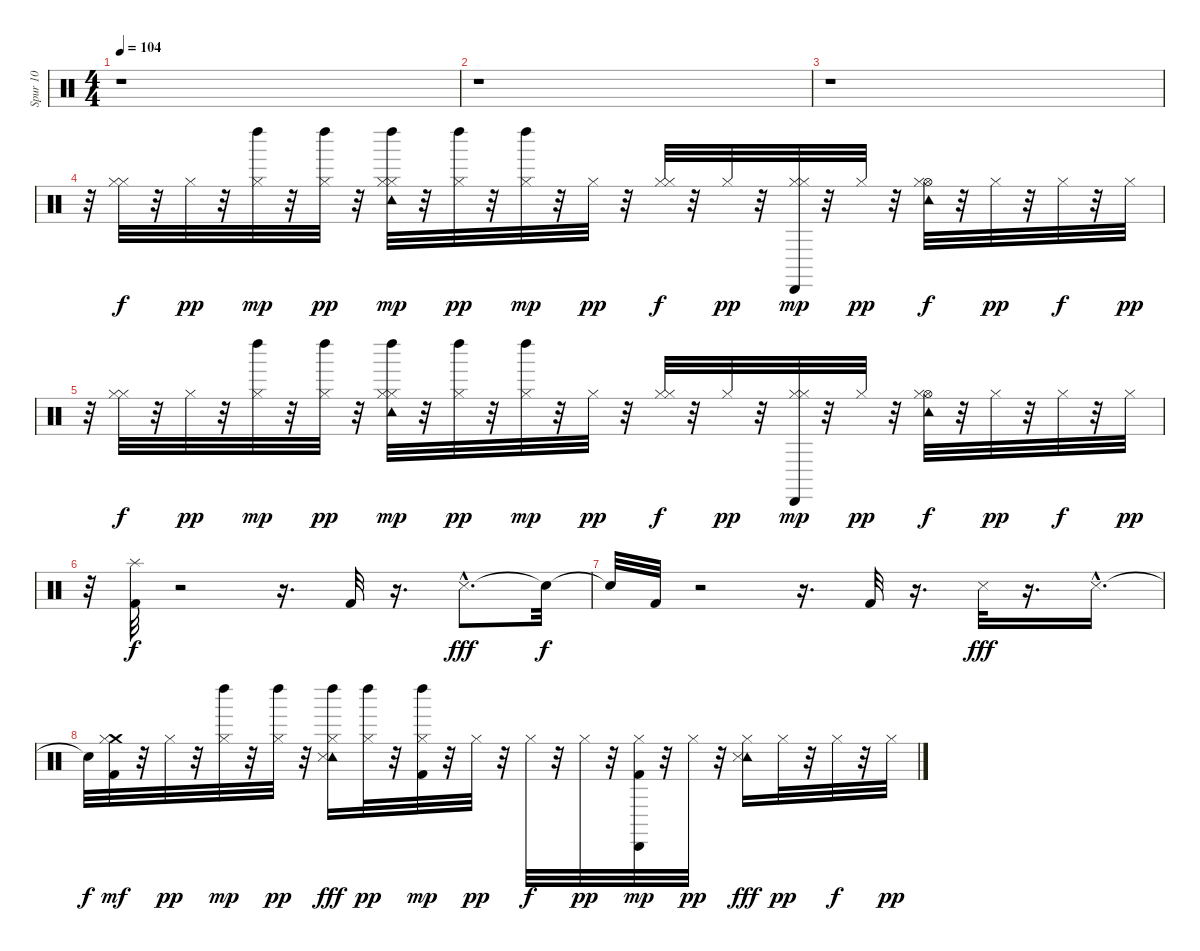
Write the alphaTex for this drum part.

\track ("Spur 10" "Spur 10") {instrument percussion}
\staff {score}
\articulation defaults
\ts (4 4)
\tempo 104
\clef neutral
\ks c
r.1{dy f} |
r.1 |
r.1 |
r.32 ("Hi-Hat (closed)" "Hi-Hat (closed)").32 r.32 "Hi-Hat (closed)".32{dy pp} r.32 ("Hi-Hat (closed)" "Left Maraca (hit)").32{dy mp} r.32 ("Hi-Hat (closed)" "Left Maraca (hit)").32{dy pp} r.32 ("Hi-Hat (closed)" "Hi-Hat (closed)" "Tambourine (hit)" "Left Maraca (hit)").32{dy mp} r.32 ("Hi-Hat (closed)" "Left Maraca (hit)").32{dy pp} r.32 ("Hi-Hat (closed)" "Left Maraca (hit)").32{dy mp} r.32 "Hi-Hat (closed)".32{dy pp} r.32 ("Hi-Hat (closed)" "Hi-Hat (closed)").32{dy f} r.32 "Hi-Hat (closed)".32{dy pp} r.32 ("Hi-Hat (closed)" "Hi-Hat (closed)" "Cabasa (hit)").32{dy mp} r.32 "Hi-Hat (closed)".32{dy pp} r.32 ("Hi-Hat (open)" "Hi-Hat (closed)" "Tambourine (hit)").32{dy f} r.32 "Hi-Hat (closed)".32{dy pp} r.32 "Hi-Hat (closed)".32{dy f} r.32 "Hi-Hat (closed)".32{dy pp} |
r.32 ("Hi-Hat (closed)" "Hi-Hat (closed)").32{dy f} r.32 "Hi-Hat (closed)".32{dy pp} r.32 ("Hi-Hat (closed)" "Left Maraca (hit)").32{dy mp} r.32 ("Hi-Hat (closed)" "Left Maraca (hit)").32{dy pp} r.32 ("Hi-Hat (closed)" "Hi-Hat (closed)" "Tambourine (hit)" "Left Maraca (hit)").32{dy mp} r.32 ("Hi-Hat (closed)" "Left Maraca (hit)").32{dy pp} r.32 ("Hi-Hat (closed)" "Left Maraca (hit)").32{dy mp} r.32 "Hi-Hat (closed)".32{dy pp} r.32 ("Hi-Hat (closed)" "Hi-Hat (closed)").32{dy f} r.32 "Hi-Hat (closed)".32{dy pp} r.32 ("Hi-Hat (closed)" "Hi-Hat (closed)" "Cabasa (hit)").32{dy mp} r.32 "Hi-Hat (closed)".32{dy pp} r.32 ("Hi-Hat (open)" "Hi-Hat (closed)" "Tambourine (hit)").32{dy f} r.32 "Hi-Hat (closed)".32{dy pp} r.32 "Hi-Hat (closed)".32{dy f} r.32 "Hi-Hat (closed)".32{dy pp} |
r.32 ("Splash (hit)" "Kick (hit) 2").32{dy f} r.2 r.16{d} "Kick (hit) 2".32 r.16{d} "Snare (side stick) 3"{hac}.8{d dy fff} "Snare (hit)"{t}.32{dy f} |
"Snare (hit)"{t}.32 "Kick (hit) 2".32 r.2 r.16{d} "Kick (hit) 2".32 r.16{d} "Snare (side stick) 3".32{dy fff} r.16{d} "Snare (side stick) 3"{hac}.16{d} |
"Snare (hit)"{t}.32{dy f} ("Crash medium (hit)" "Hi-Hat (closed)" "Kick (hit) 2").32{dy mf} r.32 "Hi-Hat (closed)".32{dy pp} r.32 ("Hi-Hat (closed)" "Left Maraca (hit)").32{dy mp} r.32 ("Hi-Hat (closed)" "Left Maraca (hit)").32{dy pp} r.32 ("Hi-Hat (closed)" "Tambourine (hit)" "Left Maraca (hit)" "Snare (side stick) 3").16{dy fff} ("Hi-Hat (closed)" "Left Maraca (hit)").32{dy pp} r.32 ("Hi-Hat (closed)" "Left Maraca (hit)" "Kick (hit) 2").32{dy mp} r.32 "Hi-Hat (closed)".32{dy pp} r.32 "Hi-Hat (closed)".32{dy f} r.32 "Hi-Hat (closed)".32{dy pp} r.32 ("Hi-Hat (closed)" "Cabasa (hit)" "Kick (hit) 2").32{dy mp} r.32 "Hi-Hat (closed)".32{dy pp} r.32 ("Hi-Hat (closed)" "Tambourine (hit)" "Snare (side stick) 3").16{dy fff} "Hi-Hat (closed)".32{dy pp} r.32 "Hi-Hat (closed)".32{dy f} r.32 "Hi-Hat (closed)".32{dy pp}
